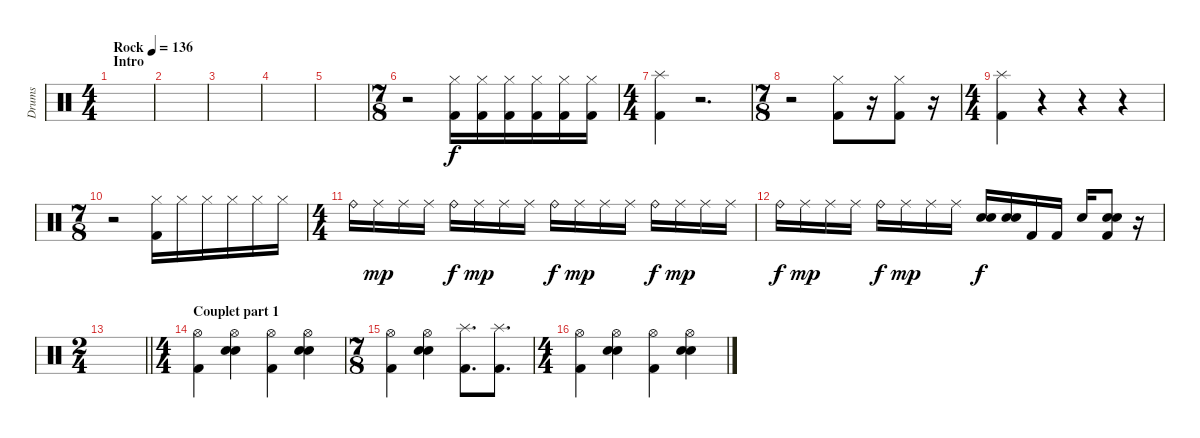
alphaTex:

\track ("Drums" "Drums") {instrument percussion}
\staff {score}
\articulation defaults
\ts (4 4)
\section ("" "Intro")
\tempo (136 "Rock")
\clef neutral
\ks c
|
|
|
|
|
\ts (7 8)
r.2 ("Hi-Hat (closed)" "Kick (hit) 2").16 ("Hi-Hat (closed)" "Kick (hit) 2").16 ("Hi-Hat (closed)" "Kick (hit) 2").16 ("Hi-Hat (closed)" "Kick (hit) 2").16 ("Hi-Hat (closed)" "Kick (hit) 2").16 ("Hi-Hat (closed)" "Kick (hit) 2").16 |
\ts (4 4)
("Splash (hit)" "Kick (hit) 2").4 r.2{d} |
\ts (7 8)
r.2 ("Hi-Hat (closed)" "Kick (hit) 2").8 r.16 ("Hi-Hat (closed)" "Kick (hit) 2").8 r.16 |
\ts (4 4)
("Splash (hit)" "Kick (hit) 2").4 r.4 r.4 r.4 |
\ts (7 8)
r.2 ("Hi-Hat (closed)" "Kick (hit) 2").16 "Hi-Hat (closed)".16 "Hi-Hat (closed)".16 "Hi-Hat (closed)".16 "Hi-Hat (closed)".16 "Hi-Hat (closed)".16 |
\ts (4 4)
"Ride (bell)".16 "Ride (middle)".16{dy mp} "Ride (middle)".16 "Ride (middle)".16 "Ride (bell)".16{dy f} "Ride (middle)".16{dy mp} "Ride (middle)".16 "Ride (middle)".16 "Ride (bell)".16{dy f} "Ride (middle)".16{dy mp} "Ride (middle)".16 "Ride (middle)".16 "Ride (bell)".16{dy f} "Ride (middle)".16{dy mp} "Ride (middle)".16 "Ride (middle)".16 |
"Ride (bell)".16{dy f} "Ride (middle)".16{dy mp} "Ride (middle)".16 "Ride (middle)".16 "Ride (bell)".16{dy f} "Ride (middle)".16{dy mp} "Ride (middle)".16 "Ride (middle)".16 ("Electric Snare (hit)" "Snare (hit) 2").16{dy f} ("Electric Snare (hit)" "Snare (hit) 2").16 "Kick (hit) 2".16 "Kick (hit) 2".16 "Snare (hit) 2".16 ("Electric Snare (hit)" "Snare (hit) 2" "Kick (hit) 2").8 r.16 |
\ts (2 4)
\barLineRight lightlight
|
\ts (4 4)
\section ("" "Couplet part 1")
("Hi-Hat (open)" "Kick (hit) 2").4 ("Hi-Hat (open)" "Electric Snare (hit)" "Snare (hit) 2").4 ("Hi-Hat (open)" "Kick (hit) 2").4 ("Hi-Hat (open)" "Electric Snare (hit)" "Snare (hit) 2").4 |
\ts (7 8)
("Hi-Hat (open)" "Kick (hit) 2").4 ("Hi-Hat (open)" "Electric Snare (hit)" "Snare (hit) 2").4 ("Splash (hit)" "Kick (hit) 2").8{d} ("Splash (hit)" "Kick (hit) 2").8{d} |
\ts (4 4)
("Hi-Hat (open)" "Kick (hit) 2").4 ("Hi-Hat (open)" "Electric Snare (hit)" "Snare (hit) 2").4 ("Hi-Hat (open)" "Kick (hit) 2").4 ("Hi-Hat (open)" "Electric Snare (hit)" "Snare (hit) 2").4
